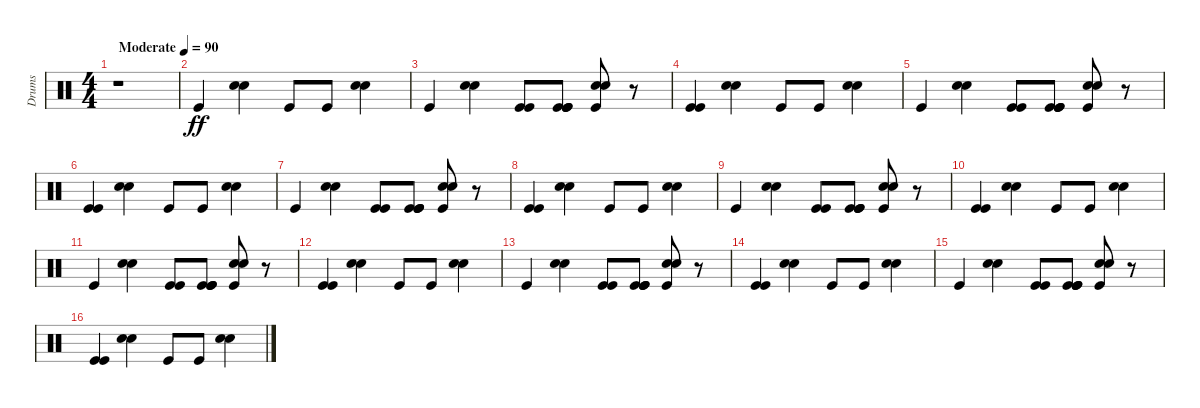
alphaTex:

\track ("Drums" "Drums") {instrument percussion}
\staff {score}
\articulation defaults
\ts (4 4)
\tempo (90 "Moderate")
\clef neutral
\ks c
r.1{dy ff} |
"Kick (hit)".4 ("Snare (hit) 2" "Hand Clap (hit)").4 "Kick (hit)".8 "Kick (hit)".8 ("Snare (hit) 2" "Hand Clap (hit)").4 |
"Kick (hit)".4 ("Snare (hit) 2" "Hand Clap (hit)").4 ("Kick (hit)" "Kick (hit)").8 ("Kick (hit)" "Kick (hit)" "Kick (hit)" "Kick (hit)").8 ("Snare (hit) 2" "Hand Clap (hit)" "Kick (hit)").8 r.8 |
("Kick (hit)" "Kick (hit)").4 ("Snare (hit) 2" "Hand Clap (hit)").4 "Kick (hit)".8 "Kick (hit)".8 ("Snare (hit) 2" "Hand Clap (hit)").4 |
"Kick (hit)".4 ("Snare (hit) 2" "Hand Clap (hit)").4 ("Kick (hit)" "Kick (hit)").8 ("Kick (hit)" "Kick (hit)" "Kick (hit)" "Kick (hit)").8 ("Snare (hit) 2" "Hand Clap (hit)" "Kick (hit)").8 r.8 |
("Kick (hit)" "Kick (hit)").4 ("Snare (hit) 2" "Hand Clap (hit)").4 "Kick (hit)".8 "Kick (hit)".8 ("Snare (hit) 2" "Hand Clap (hit)").4 |
"Kick (hit)".4 ("Snare (hit) 2" "Hand Clap (hit)").4 ("Kick (hit)" "Kick (hit)").8 ("Kick (hit)" "Kick (hit)" "Kick (hit)" "Kick (hit)").8 ("Snare (hit) 2" "Hand Clap (hit)" "Kick (hit)").8 r.8 |
("Kick (hit)" "Kick (hit)").4 ("Snare (hit) 2" "Hand Clap (hit)").4 "Kick (hit)".8 "Kick (hit)".8 ("Snare (hit) 2" "Hand Clap (hit)").4 |
"Kick (hit)".4 ("Snare (hit) 2" "Hand Clap (hit)").4 ("Kick (hit)" "Kick (hit)").8 ("Kick (hit)" "Kick (hit)" "Kick (hit)" "Kick (hit)").8 ("Snare (hit) 2" "Hand Clap (hit)" "Kick (hit)").8 r.8 |
("Kick (hit)" "Kick (hit)").4 ("Snare (hit) 2" "Hand Clap (hit)").4 "Kick (hit)".8 "Kick (hit)".8 ("Snare (hit) 2" "Hand Clap (hit)").4 |
"Kick (hit)".4 ("Snare (hit) 2" "Hand Clap (hit)").4 ("Kick (hit)" "Kick (hit)").8 ("Kick (hit)" "Kick (hit)" "Kick (hit)" "Kick (hit)").8 ("Snare (hit) 2" "Hand Clap (hit)" "Kick (hit)").8 r.8 |
("Kick (hit)" "Kick (hit)").4 ("Snare (hit) 2" "Hand Clap (hit)").4 "Kick (hit)".8 "Kick (hit)".8 ("Snare (hit) 2" "Hand Clap (hit)").4 |
"Kick (hit)".4 ("Snare (hit) 2" "Hand Clap (hit)").4 ("Kick (hit)" "Kick (hit)").8 ("Kick (hit)" "Kick (hit)" "Kick (hit)" "Kick (hit)").8 ("Snare (hit) 2" "Hand Clap (hit)" "Kick (hit)").8 r.8 |
("Kick (hit)" "Kick (hit)").4 ("Snare (hit) 2" "Hand Clap (hit)").4 "Kick (hit)".8 "Kick (hit)".8 ("Snare (hit) 2" "Hand Clap (hit)").4 |
"Kick (hit)".4 ("Snare (hit) 2" "Hand Clap (hit)").4 ("Kick (hit)" "Kick (hit)").8 ("Kick (hit)" "Kick (hit)" "Kick (hit)" "Kick (hit)").8 ("Snare (hit) 2" "Hand Clap (hit)" "Kick (hit)").8 r.8 |
("Kick (hit)" "Kick (hit)").4 ("Snare (hit) 2" "Hand Clap (hit)").4 "Kick (hit)".8 "Kick (hit)".8 ("Snare (hit) 2" "Hand Clap (hit)").4
